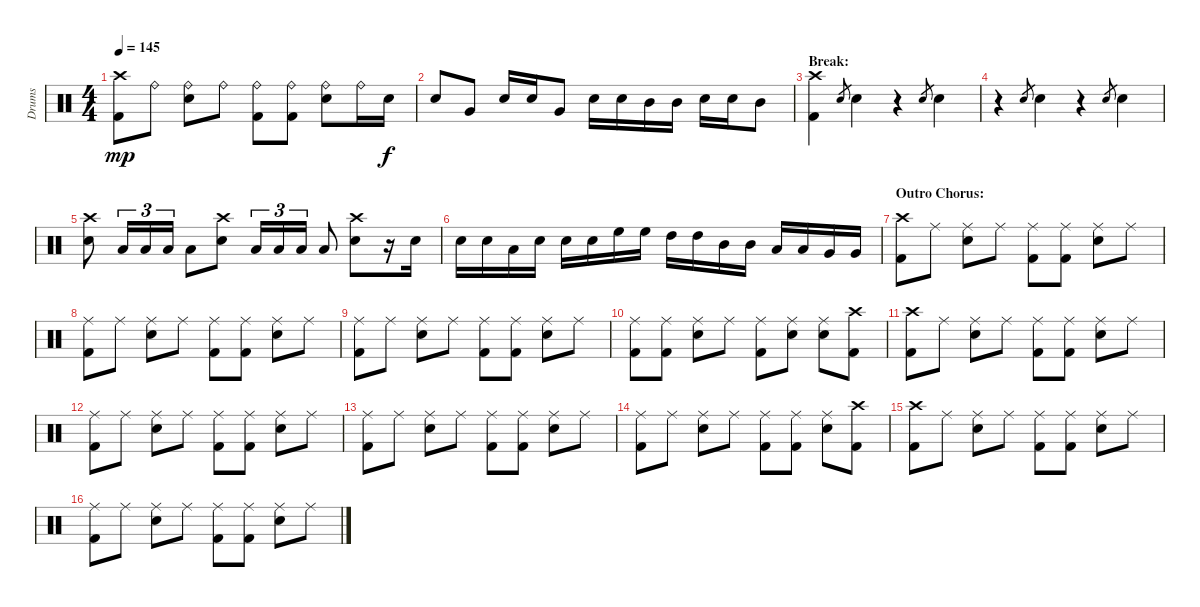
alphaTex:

\track ("Drums" "Drums") {instrument percussion}
\staff {score}
\articulation defaults
\ts (4 4)
\tempo 145
\clef neutral
\ks c
("Crash high (hit)" "Kick (hit) 2").8{dy mp} "Ride (bell)".8 ("Ride (bell)" "Electric Snare (hit)").8 "Ride (bell)".8 ("Ride (bell)" "Kick (hit) 2").8 ("Ride (bell)" "Kick (hit) 2").8 ("Ride (bell)" "Electric Snare (hit)").8 "Ride (bell)".16 "Electric Snare (hit)".16{dy f} |
"Electric Snare (hit)".8 "Very Low Tom (hit)".8 "Electric Snare (hit)".16 "Electric Snare (hit)".16 "Very Low Tom (hit)".8 "Electric Snare (hit)".16 "Electric Snare (hit)".16 "Mid Tom (hit)".16 "Mid Tom (hit)".16 "Electric Snare (hit)".16 "Electric Snare (hit)".16 "Mid Tom (hit)".8 |
\section ("" "Break:")
("Crash high (hit)" "Kick (hit) 2").4 "Electric Snare (hit)".8{gr} "Electric Snare (hit)".4 r.4 "Electric Snare (hit)".8{gr} "Electric Snare (hit)".4 |
r.4 "Electric Snare (hit)".8{gr} "Electric Snare (hit)".4 r.4 "Electric Snare (hit)".8{gr} "Electric Snare (hit)".4 |
("Crash high (hit)" "Electric Snare (hit)").8 "Low Floor Tom (hit)".16{tu (3 2)} "Low Floor Tom (hit)".16{tu (3 2)} "Low Floor Tom (hit)".16{tu (3 2)} "Low Floor Tom (hit)".8 ("Crash high (hit)" "Electric Snare (hit)").8 "Low Floor Tom (hit)".16{tu (3 2)} "Low Floor Tom (hit)".16{tu (3 2)} "Low Floor Tom (hit)".16{tu (3 2)} "Low Floor Tom (hit)".8 ("Crash high (hit)" "Electric Snare (hit)").8 r.16 "Electric Snare (hit)".16 |
"Electric Snare (hit)".16 "Electric Snare (hit)".16 "Low Floor Tom (hit)".16 "Electric Snare (hit)".16 "Electric Snare (hit)".16 "Electric Snare (hit)".16 "High Floor Tom (hit)".16 "High Floor Tom (hit)".16 "High Tom (hit)".16 "High Tom (hit)".16 "Mid Tom (hit)".16 "Mid Tom (hit)".16 "Low Tom (hit)".16 "Low Tom (hit)".16 "Very Low Tom (hit)".16 "Very Low Tom (hit)".16 |
\section ("" "Outro Chorus:")
("Crash high (hit)" "Kick (hit) 2").8 "Ride (middle)".8 ("Ride (middle)" "Electric Snare (hit)").8 "Ride (middle)".8 ("Ride (middle)" "Kick (hit) 2").8 ("Ride (middle)" "Kick (hit) 2").8 ("Ride (middle)" "Electric Snare (hit)").8 "Ride (middle)".8 |
("Ride (middle)" "Kick (hit) 2").8 "Ride (middle)".8 ("Ride (middle)" "Electric Snare (hit)").8 "Ride (middle)".8 ("Ride (middle)" "Kick (hit) 2").8 ("Ride (middle)" "Kick (hit) 2").8 ("Ride (middle)" "Electric Snare (hit)").8 "Ride (middle)".8 |
("Ride (middle)" "Kick (hit) 2").8 "Ride (middle)".8 ("Ride (middle)" "Electric Snare (hit)").8 "Ride (middle)".8 ("Ride (middle)" "Kick (hit) 2").8 ("Ride (middle)" "Kick (hit) 2").8 ("Ride (middle)" "Electric Snare (hit)").8 "Ride (middle)".8 |
("Ride (middle)" "Kick (hit) 2").8 ("Ride (middle)" "Kick (hit) 2").8 ("Ride (middle)" "Electric Snare (hit)").8 "Ride (middle)".8 ("Ride (middle)" "Kick (hit) 2").8 ("Ride (middle)" "Electric Snare (hit)").8 ("Ride (middle)" "Electric Snare (hit)").8 ("Crash high (hit)" "Kick (hit) 2").8 |
("Crash high (hit)" "Kick (hit) 2").8 "Ride (middle)".8 ("Ride (middle)" "Electric Snare (hit)").8 "Ride (middle)".8 ("Ride (middle)" "Kick (hit) 2").8 ("Ride (middle)" "Kick (hit) 2").8 ("Ride (middle)" "Electric Snare (hit)").8 "Ride (middle)".8 |
("Ride (middle)" "Kick (hit) 2").8 "Ride (middle)".8 ("Ride (middle)" "Electric Snare (hit)").8 "Ride (middle)".8 ("Ride (middle)" "Kick (hit) 2").8 ("Ride (middle)" "Kick (hit) 2").8 ("Ride (middle)" "Electric Snare (hit)").8 "Ride (middle)".8 |
("Ride (middle)" "Kick (hit) 2").8 "Ride (middle)".8 ("Ride (middle)" "Electric Snare (hit)").8 "Ride (middle)".8 ("Ride (middle)" "Kick (hit) 2").8 ("Ride (middle)" "Kick (hit) 2").8 ("Ride (middle)" "Electric Snare (hit)").8 "Ride (middle)".8 |
("Ride (middle)" "Kick (hit) 2").8 "Ride (middle)".8 ("Ride (middle)" "Electric Snare (hit)").8 "Ride (middle)".8 ("Ride (middle)" "Kick (hit) 2").8 ("Ride (middle)" "Kick (hit) 2").8 ("Ride (middle)" "Electric Snare (hit)").8 ("Crash high (hit)" "Kick (hit) 2").8 |
("Crash high (hit)" "Kick (hit) 2").8 "Ride (middle)".8 ("Ride (middle)" "Electric Snare (hit)").8 "Ride (middle)".8 ("Ride (middle)" "Kick (hit) 2").8 ("Ride (middle)" "Kick (hit) 2").8 ("Ride (middle)" "Electric Snare (hit)").8 "Ride (middle)".8 |
("Ride (middle)" "Kick (hit) 2").8 "Ride (middle)".8 ("Ride (middle)" "Electric Snare (hit)").8 "Ride (middle)".8 ("Ride (middle)" "Kick (hit) 2").8 ("Ride (middle)" "Kick (hit) 2").8 ("Ride (middle)" "Electric Snare (hit)").8 "Ride (middle)".8
